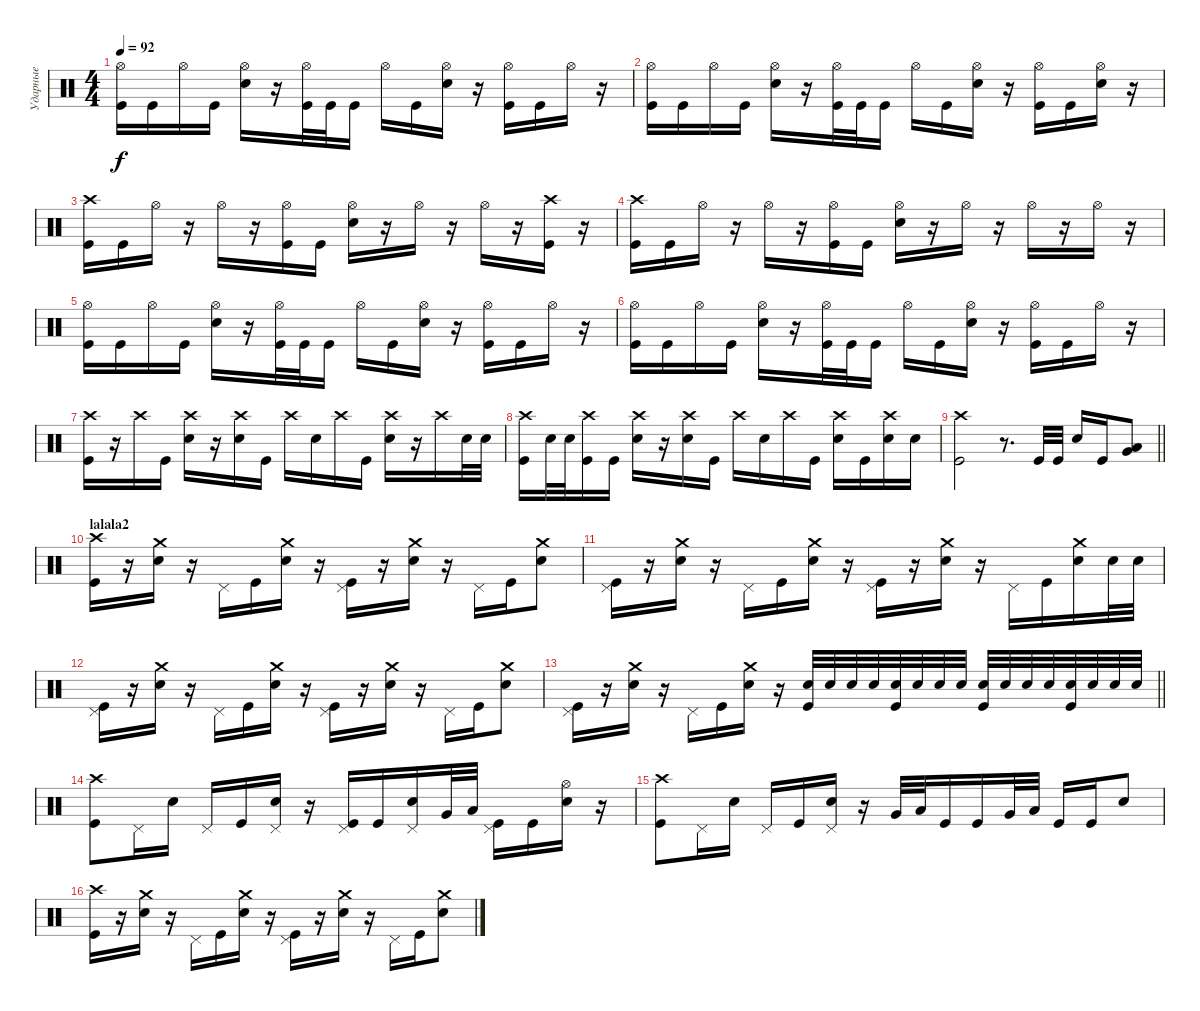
\track ("Ударные" "Ударные") {instrument percussion}
\staff {score}
\articulation defaults
\ts (4 4)
\tempo 92
\clef neutral
\ks c
("Kick (hit)" "Hi-Hat (open)").16{dy f} "Kick (hit)".16 "Hi-Hat (open)".16 "Kick (hit)".16 ("Snare (hit) 2" "Hi-Hat (open)").16 r.16 ("Kick (hit)" "Hi-Hat (open)").32 "Kick (hit)".32 "Kick (hit)".16 "Hi-Hat (open)".16 "Kick (hit)".16 ("Snare (hit) 2" "Hi-Hat (open)").16 r.16 ("Kick (hit)" "Hi-Hat (open)").16 "Kick (hit)".16 "Hi-Hat (open)".16 r.16 |
("Kick (hit)" "Hi-Hat (open)").16 "Kick (hit)".16 "Hi-Hat (open)".16 "Kick (hit)".16 ("Snare (hit) 2" "Hi-Hat (open)").16 r.16 ("Kick (hit)" "Hi-Hat (open)").32 "Kick (hit)".32 "Kick (hit)".16 "Hi-Hat (open)".16 "Kick (hit)".16 ("Snare (hit) 2" "Hi-Hat (open)").16 r.16 ("Kick (hit)" "Hi-Hat (open)").16 "Kick (hit)".16 ("Snare (hit) 2" "Hi-Hat (open)").16 r.16 |
("Kick (hit)" "Crash high (hit)").16 "Kick (hit)".16 "Hi-Hat (open)".16 r.16 "Hi-Hat (open)".16 r.16 ("Kick (hit)" "Hi-Hat (open)").16 "Kick (hit)".16 ("Snare (hit) 2" "Hi-Hat (open)").16 r.16 "Hi-Hat (open)".16 r.16 "Hi-Hat (open)".16 r.16 ("Kick (hit)" "Crash high (hit)").16 r.16 |
("Kick (hit)" "Crash high (hit)").16 "Kick (hit)".16 "Hi-Hat (open)".16 r.16 "Hi-Hat (open)".16 r.16 ("Kick (hit)" "Hi-Hat (open)").16 "Kick (hit)".16 ("Snare (hit) 2" "Hi-Hat (open)").16 r.16 "Hi-Hat (open)".16 r.16 "Hi-Hat (open)".16 r.16 "Hi-Hat (open)".16 r.16 |
("Kick (hit)" "Hi-Hat (open)").16 "Kick (hit)".16 "Hi-Hat (open)".16 "Kick (hit)".16 ("Snare (hit) 2" "Hi-Hat (open)").16 r.16 ("Kick (hit)" "Hi-Hat (open)").32 "Kick (hit)".32 "Kick (hit)".16 "Hi-Hat (open)".16 "Kick (hit)".16 ("Snare (hit) 2" "Hi-Hat (open)").16 r.16 ("Kick (hit)" "Hi-Hat (open)").16 "Kick (hit)".16 "Hi-Hat (open)".16 r.16 |
("Kick (hit)" "Hi-Hat (open)").16 "Kick (hit)".16 "Hi-Hat (open)".16 "Kick (hit)".16 ("Snare (hit) 2" "Hi-Hat (open)").16 r.16 ("Kick (hit)" "Hi-Hat (open)").32 "Kick (hit)".32 "Kick (hit)".16 "Hi-Hat (open)".16 "Kick (hit)".16 ("Snare (hit) 2" "Hi-Hat (open)").16 r.16 ("Kick (hit)" "Hi-Hat (open)").16 "Kick (hit)".16 "Hi-Hat (open)".16 r.16 |
("Kick (hit)" "Crash high (hit)").16 r.16 "Crash high (hit)".16 "Kick (hit)".16 ("Snare (hit) 2" "Crash high (hit)").16 r.16 ("Snare (hit) 2" "Crash high (hit)").16 "Kick (hit)".16 "Crash high (hit)".16 "Snare (hit) 2".16 "Crash high (hit)".16 "Kick (hit)".16 ("Snare (hit) 2" "Crash high (hit)").16 r.16 "Crash high (hit)".16 "Snare (hit) 2".32 "Snare (hit) 2".32 |
("Kick (hit)" "Crash high (hit)").16 "Snare (hit) 2".32 "Snare (hit) 2".32 ("Kick (hit)" "Crash high (hit)").16 "Kick (hit)".16 ("Snare (hit) 2" "Crash high (hit)").16 r.16 ("Snare (hit) 2" "Crash high (hit)").16 "Kick (hit)".16 "Crash high (hit)".16 "Snare (hit) 2".16 "Crash high (hit)".16 "Kick (hit)".16 ("Snare (hit) 2" "Crash high (hit)").16 "Kick (hit)".16 ("Snare (hit) 2" "Crash high (hit)").16 "Snare (hit) 2".16 |
\barLineRight lightlight
("Kick (hit)" "Crash high (hit)").2 r.8{d} "Kick (hit)".32 "Kick (hit)".32 "Snare (hit) 2".16 "Kick (hit)".16 ("Very Low Tom (hit)" "Low Floor Tom (hit)").8 |
\section ("" "lalala2")
("Kick (hit)" "Crash high (hit)").16 r.16 ("Snare (hit) 2" "Crash medium (hit)").16 r.16 "Pedal Hi-Hat (hit)".16 "Kick (hit)".16 ("Snare (hit) 2" "Crash medium (hit)").16 r.16 ("Kick (hit)" "Pedal Hi-Hat (hit)").16 r.16 ("Snare (hit) 2" "Crash medium (hit)").16 r.16 "Pedal Hi-Hat (hit)".16 "Kick (hit)".16 ("Snare (hit) 2" "Crash medium (hit)").8 |
("Kick (hit)" "Pedal Hi-Hat (hit)").16 r.16 ("Snare (hit) 2" "Crash medium (hit)").16 r.16 "Pedal Hi-Hat (hit)".16 "Kick (hit)".16 ("Snare (hit) 2" "Crash medium (hit)").16 r.16 ("Kick (hit)" "Pedal Hi-Hat (hit)").16 r.16 ("Snare (hit) 2" "Crash medium (hit)").16 r.16 "Pedal Hi-Hat (hit)".16 "Kick (hit)".16 ("Snare (hit) 2" "Crash medium (hit)").16 "Snare (hit) 2".32 "Snare (hit) 2".32 |
("Kick (hit)" "Pedal Hi-Hat (hit)").16 r.16 ("Snare (hit) 2" "Crash medium (hit)").16 r.16 "Pedal Hi-Hat (hit)".16 "Kick (hit)".16 ("Snare (hit) 2" "Crash medium (hit)").16 r.16 ("Kick (hit)" "Pedal Hi-Hat (hit)").16 r.16 ("Snare (hit) 2" "Crash medium (hit)").16 r.16 "Pedal Hi-Hat (hit)".16 "Kick (hit)".16 ("Snare (hit) 2" "Crash medium (hit)").8 |
\barLineRight lightlight
("Kick (hit)" "Pedal Hi-Hat (hit)").16 r.16 ("Snare (hit) 2" "Crash medium (hit)").16 r.16 "Pedal Hi-Hat (hit)".16 "Kick (hit)".16 ("Snare (hit) 2" "Crash medium (hit)").16 r.16 ("Snare (hit) 2" "Kick (hit)").32 "Snare (hit) 2".32 "Snare (hit) 2".32 "Snare (hit) 2".32 ("Snare (hit) 2" "Kick (hit)").32 "Snare (hit) 2".32 "Snare (hit) 2".32 "Snare (hit) 2".32 ("Snare (hit) 2" "Kick (hit)").32 "Snare (hit) 2".32 "Snare (hit) 2".32 "Snare (hit) 2".32 ("Snare (hit) 2" "Kick (hit)").32 "Snare (hit) 2".32 "Snare (hit) 2".32 "Snare (hit) 2".32 |
("Kick (hit)" "Crash high (hit)").8 "Pedal Hi-Hat (hit)".16 "Snare (hit) 2".16 "Pedal Hi-Hat (hit)".16 "Kick (hit)".16 ("Snare (hit) 2" "Pedal Hi-Hat (hit)").16 r.16 ("Kick (hit)" "Pedal Hi-Hat (hit)").16 "Kick (hit)".16 ("Snare (hit) 2" "Pedal Hi-Hat (hit)").16 "Very Low Tom (hit)".32 "Low Floor Tom (hit)".32 ("Kick (hit)" "Pedal Hi-Hat (hit)").16 "Kick (hit)".16 ("Snare (hit) 2" "Hi-Hat (open)").16 r.16 |
("Kick (hit)" "Crash high (hit)").8 "Pedal Hi-Hat (hit)".16 "Snare (hit) 2".16 "Pedal Hi-Hat (hit)".16 "Kick (hit)".16 ("Snare (hit) 2" "Pedal Hi-Hat (hit)").16 r.16 "Very Low Tom (hit)".32 "Low Floor Tom (hit)".32 "Kick (hit)".16 "Kick (hit)".16 "Very Low Tom (hit)".32 "Low Floor Tom (hit)".32 "Kick (hit)".16 "Kick (hit)".16 "Snare (hit) 2".8 |
("Kick (hit)" "Crash high (hit)").16 r.16 ("Snare (hit) 2" "Crash medium (hit)").16 r.16 "Pedal Hi-Hat (hit)".16 "Kick (hit)".16 ("Snare (hit) 2" "Crash medium (hit)").16 r.16 ("Kick (hit)" "Pedal Hi-Hat (hit)").16 r.16 ("Snare (hit) 2" "Crash medium (hit)").16 r.16 "Pedal Hi-Hat (hit)".16 "Kick (hit)".16 ("Snare (hit) 2" "Crash medium (hit)").8
